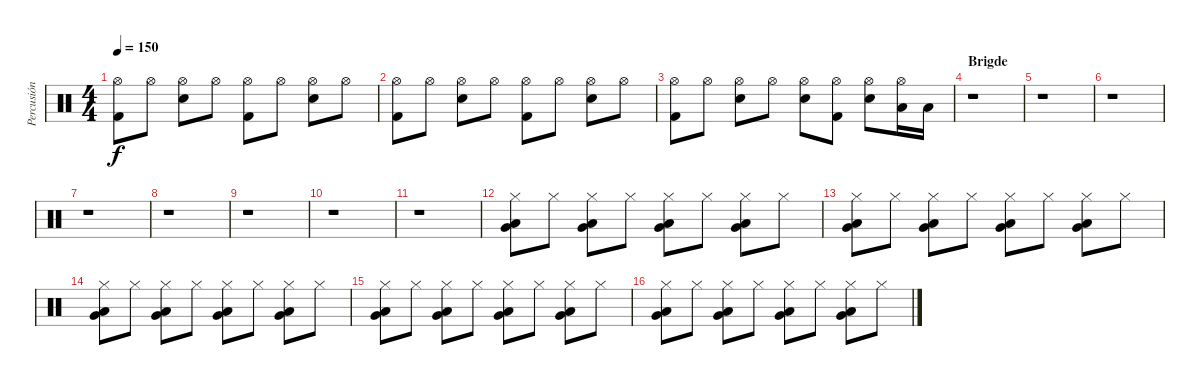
\track ("Percusión" "Percusión") {instrument percussion}
\staff {score}
\articulation defaults
\ts (4 4)
\tempo 150
\clef neutral
\ks c
("Kick (hit) 2" "Hi-Hat (open)").8{dy f} "Hi-Hat (open)".8 ("Snare (hit) 2" "Hi-Hat (open)").8 "Hi-Hat (open)".8 ("Kick (hit) 2" "Hi-Hat (open)").8 "Hi-Hat (open)".8 ("Snare (hit) 2" "Hi-Hat (open)").8 "Hi-Hat (open)".8 |
("Kick (hit) 2" "Hi-Hat (open)").8 "Hi-Hat (open)".8 ("Snare (hit) 2" "Hi-Hat (open)").8 "Hi-Hat (open)".8 ("Kick (hit) 2" "Hi-Hat (open)").8 "Hi-Hat (open)".8 ("Snare (hit) 2" "Hi-Hat (open)").8 "Hi-Hat (open)".8 |
("Kick (hit) 2" "Hi-Hat (open)").8 "Hi-Hat (open)".8 ("Snare (hit) 2" "Hi-Hat (open)").8 "Hi-Hat (open)".8 ("Snare (hit) 2" "Hi-Hat (open)").8 ("Kick (hit) 2" "Hi-Hat (open)").8 ("Snare (hit) 2" "Hi-Hat (open)").8 ("Low Tom (hit)" "Hi-Hat (open)").16 "Low Tom (hit)".16 |
\section ("" "Brigde")
r.1 |
r.1 |
r.1 |
r.1 |
r.1 |
r.1 |
r.1 |
r.1 |
("Hi-Hat (closed)" "Very Low Tom (hit)" "Low Tom (hit)").8{volume 8} "Hi-Hat (closed)".8 ("Hi-Hat (closed)" "Very Low Tom (hit)" "Low Tom (hit)").8 "Hi-Hat (closed)".8 ("Hi-Hat (closed)" "Very Low Tom (hit)" "Low Tom (hit)").8 "Hi-Hat (closed)".8 ("Hi-Hat (closed)" "Very Low Tom (hit)" "Low Tom (hit)").8 "Hi-Hat (closed)".8 |
("Hi-Hat (closed)" "Very Low Tom (hit)" "Low Tom (hit)").8{volume 8} "Hi-Hat (closed)".8 ("Hi-Hat (closed)" "Very Low Tom (hit)" "Low Tom (hit)").8 "Hi-Hat (closed)".8 ("Hi-Hat (closed)" "Very Low Tom (hit)" "Low Tom (hit)").8 "Hi-Hat (closed)".8 ("Hi-Hat (closed)" "Very Low Tom (hit)" "Low Tom (hit)").8 "Hi-Hat (closed)".8 |
("Hi-Hat (closed)" "Very Low Tom (hit)" "Low Tom (hit)").8{volume 8} "Hi-Hat (closed)".8 ("Hi-Hat (closed)" "Very Low Tom (hit)" "Low Tom (hit)").8 "Hi-Hat (closed)".8 ("Hi-Hat (closed)" "Very Low Tom (hit)" "Low Tom (hit)").8 "Hi-Hat (closed)".8 ("Hi-Hat (closed)" "Very Low Tom (hit)" "Low Tom (hit)").8 "Hi-Hat (closed)".8 |
("Hi-Hat (closed)" "Very Low Tom (hit)" "Low Tom (hit)").8{volume 8} "Hi-Hat (closed)".8 ("Hi-Hat (closed)" "Very Low Tom (hit)" "Low Tom (hit)").8 "Hi-Hat (closed)".8 ("Hi-Hat (closed)" "Very Low Tom (hit)" "Low Tom (hit)").8 "Hi-Hat (closed)".8 ("Hi-Hat (closed)" "Very Low Tom (hit)" "Low Tom (hit)").8 "Hi-Hat (closed)".8 |
("Hi-Hat (closed)" "Very Low Tom (hit)" "Low Tom (hit)").8{volume 8} "Hi-Hat (closed)".8 ("Hi-Hat (closed)" "Very Low Tom (hit)" "Low Tom (hit)").8 "Hi-Hat (closed)".8 ("Hi-Hat (closed)" "Very Low Tom (hit)" "Low Tom (hit)").8 "Hi-Hat (closed)".8 ("Hi-Hat (closed)" "Very Low Tom (hit)" "Low Tom (hit)").8 "Hi-Hat (closed)".8
